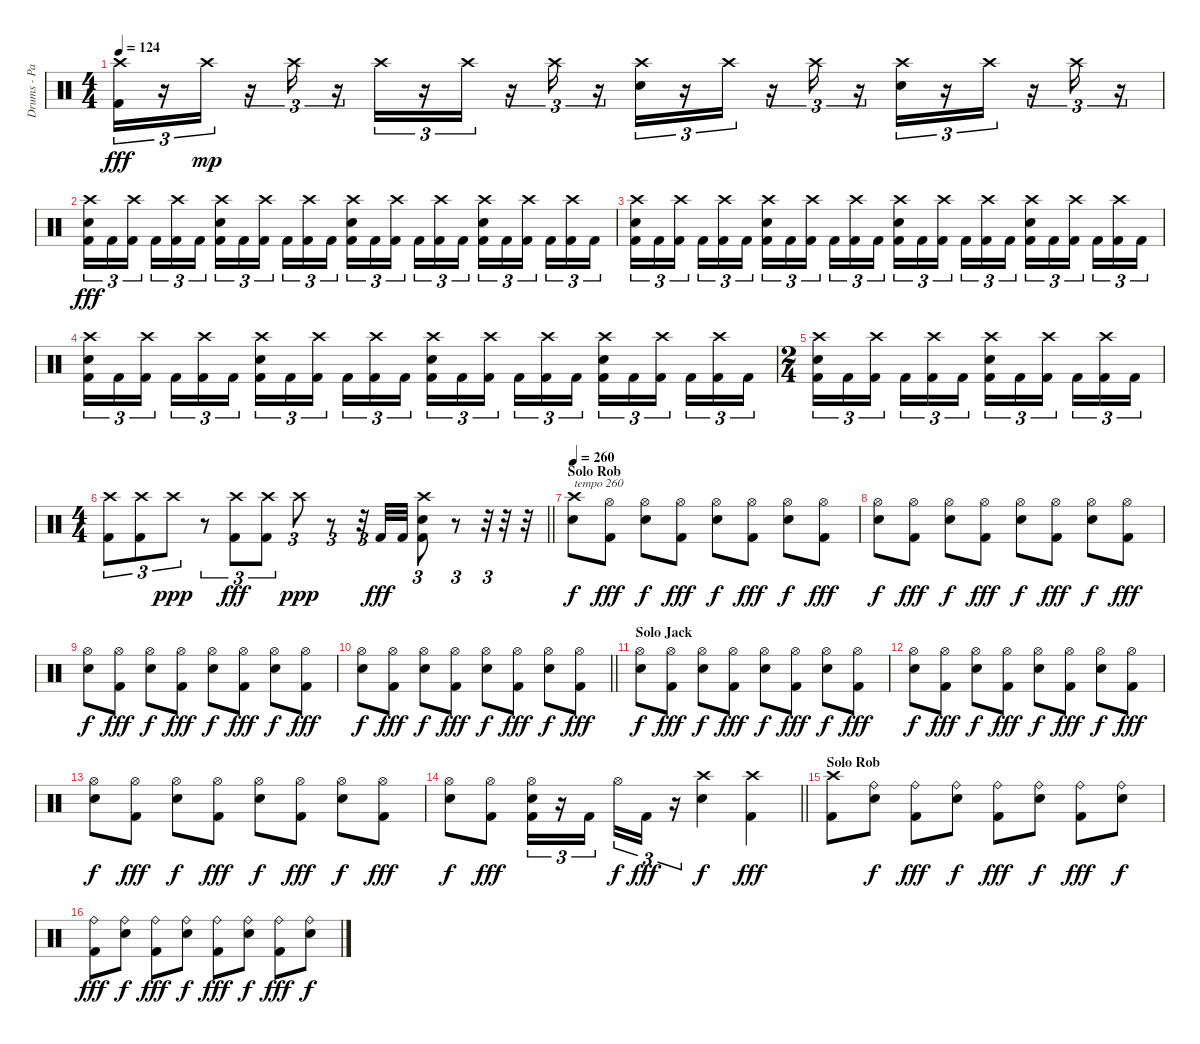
\track ("Drums - Paul Mazurkiewicz" "Drums - Pa") {instrument percussion}
\staff {score}
\articulation defaults
\ts (4 4)
\tempo 124
\clef neutral
\ks c
("Crash high (hit)" "Kick (hit) 2").16{tu (3 2) dy fff} r.16{tu (3 2)} "Crash high (hit)".16{tu (3 2) dy mp} r.16{tu (3 2)} "Crash high (hit)".16{tu (3 2)} r.16{tu (3 2)} "Crash high (hit)".16{tu (3 2)} r.16{tu (3 2)} "Crash high (hit)".16{tu (3 2)} r.16{tu (3 2)} "Crash high (hit)".16{tu (3 2)} r.16{tu (3 2)} ("Crash high (hit)" "Snare (hit) 2").16{tu (3 2)} r.16{tu (3 2)} "Crash high (hit)".16{tu (3 2)} r.16{tu (3 2)} "Crash high (hit)".16{tu (3 2)} r.16{tu (3 2)} ("Crash high (hit)" "Snare (hit) 2").16{tu (3 2)} r.16{tu (3 2)} "Crash high (hit)".16{tu (3 2)} r.16{tu (3 2)} "Crash high (hit)".16{tu (3 2)} r.16{tu (3 2)} |
("Crash high (hit)" "Snare (hit) 2" "Kick (hit) 2").16{tu (3 2) dy fff} "Kick (hit) 2".16{tu (3 2)} ("Crash high (hit)" "Kick (hit) 2").16{tu (3 2) beam splitsecondary} "Kick (hit) 2".16{tu (3 2)} ("Crash high (hit)" "Kick (hit) 2").16{tu (3 2)} "Kick (hit) 2".16{tu (3 2)} ("Crash high (hit)" "Snare (hit) 2" "Kick (hit) 2").16{tu (3 2)} "Kick (hit) 2".16{tu (3 2)} ("Crash high (hit)" "Kick (hit) 2").16{tu (3 2) beam splitsecondary} "Kick (hit) 2".16{tu (3 2)} ("Crash high (hit)" "Kick (hit) 2").16{tu (3 2)} "Kick (hit) 2".16{tu (3 2)} ("Crash high (hit)" "Snare (hit) 2" "Kick (hit) 2").16{tu (3 2)} "Kick (hit) 2".16{tu (3 2)} ("Crash high (hit)" "Kick (hit) 2").16{tu (3 2) beam splitsecondary} "Kick (hit) 2".16{tu (3 2)} ("Crash high (hit)" "Kick (hit) 2").16{tu (3 2)} "Kick (hit) 2".16{tu (3 2)} ("Crash high (hit)" "Snare (hit) 2" "Kick (hit) 2").16{tu (3 2)} "Kick (hit) 2".16{tu (3 2)} ("Crash high (hit)" "Kick (hit) 2").16{tu (3 2) beam splitsecondary} "Kick (hit) 2".16{tu (3 2)} ("Crash high (hit)" "Kick (hit) 2").16{tu (3 2)} "Kick (hit) 2".16{tu (3 2)} |
("Crash high (hit)" "Snare (hit) 2" "Kick (hit) 2").16{tu (3 2)} "Kick (hit) 2".16{tu (3 2)} ("Crash high (hit)" "Kick (hit) 2").16{tu (3 2) beam splitsecondary} "Kick (hit) 2".16{tu (3 2)} ("Crash high (hit)" "Kick (hit) 2").16{tu (3 2)} "Kick (hit) 2".16{tu (3 2)} ("Crash high (hit)" "Snare (hit) 2" "Kick (hit) 2").16{tu (3 2)} "Kick (hit) 2".16{tu (3 2)} ("Crash high (hit)" "Kick (hit) 2").16{tu (3 2) beam splitsecondary} "Kick (hit) 2".16{tu (3 2)} ("Crash high (hit)" "Kick (hit) 2").16{tu (3 2)} "Kick (hit) 2".16{tu (3 2)} ("Crash high (hit)" "Snare (hit) 2" "Kick (hit) 2").16{tu (3 2)} "Kick (hit) 2".16{tu (3 2)} ("Crash high (hit)" "Kick (hit) 2").16{tu (3 2) beam splitsecondary} "Kick (hit) 2".16{tu (3 2)} ("Crash high (hit)" "Kick (hit) 2").16{tu (3 2)} "Kick (hit) 2".16{tu (3 2)} ("Crash high (hit)" "Snare (hit) 2" "Kick (hit) 2").16{tu (3 2)} "Kick (hit) 2".16{tu (3 2)} ("Crash high (hit)" "Kick (hit) 2").16{tu (3 2) beam splitsecondary} "Kick (hit) 2".16{tu (3 2)} ("Crash high (hit)" "Kick (hit) 2").16{tu (3 2)} "Kick (hit) 2".16{tu (3 2)} |
("Crash high (hit)" "Snare (hit) 2" "Kick (hit) 2").16{tu (3 2)} "Kick (hit) 2".16{tu (3 2)} ("Crash high (hit)" "Kick (hit) 2").16{tu (3 2) beam splitsecondary} "Kick (hit) 2".16{tu (3 2)} ("Crash high (hit)" "Kick (hit) 2").16{tu (3 2)} "Kick (hit) 2".16{tu (3 2)} ("Crash high (hit)" "Snare (hit) 2" "Kick (hit) 2").16{tu (3 2)} "Kick (hit) 2".16{tu (3 2)} ("Crash high (hit)" "Kick (hit) 2").16{tu (3 2) beam splitsecondary} "Kick (hit) 2".16{tu (3 2)} ("Crash high (hit)" "Kick (hit) 2").16{tu (3 2)} "Kick (hit) 2".16{tu (3 2)} ("Crash high (hit)" "Snare (hit) 2" "Kick (hit) 2").16{tu (3 2)} "Kick (hit) 2".16{tu (3 2)} ("Crash high (hit)" "Kick (hit) 2").16{tu (3 2) beam splitsecondary} "Kick (hit) 2".16{tu (3 2)} ("Crash high (hit)" "Kick (hit) 2").16{tu (3 2)} "Kick (hit) 2".16{tu (3 2)} ("Crash high (hit)" "Snare (hit) 2" "Kick (hit) 2").16{tu (3 2)} "Kick (hit) 2".16{tu (3 2)} ("Crash high (hit)" "Kick (hit) 2").16{tu (3 2) beam splitsecondary} "Kick (hit) 2".16{tu (3 2)} ("Crash high (hit)" "Kick (hit) 2").16{tu (3 2)} "Kick (hit) 2".16{tu (3 2)} |
\ts (2 4)
("Crash high (hit)" "Snare (hit) 2" "Kick (hit) 2").16{tu (3 2)} "Kick (hit) 2".16{tu (3 2)} ("Crash high (hit)" "Kick (hit) 2").16{tu (3 2) beam splitsecondary} "Kick (hit) 2".16{tu (3 2)} ("Crash high (hit)" "Kick (hit) 2").16{tu (3 2)} "Kick (hit) 2".16{tu (3 2)} ("Crash high (hit)" "Snare (hit) 2" "Kick (hit) 2").16{tu (3 2)} "Kick (hit) 2".16{tu (3 2)} ("Crash high (hit)" "Kick (hit) 2").16{tu (3 2) beam splitsecondary} "Kick (hit) 2".16{tu (3 2)} ("Crash high (hit)" "Kick (hit) 2").16{tu (3 2)} "Kick (hit) 2".16{tu (3 2)} |
\ts (4 4)
\barLineRight lightlight
("Crash high (hit)" "Kick (hit) 2").8{tu (3 2)} ("Crash high (hit)" "Kick (hit) 2").8{tu (3 2)} "Crash high (hit)".8{tu (3 2) dy ppp} r.8{tu (3 2)} ("Crash high (hit)" "Kick (hit) 2").8{tu (3 2) dy fff} ("Crash high (hit)" "Kick (hit) 2").8{tu (3 2)} "Crash high (hit)".8{tu (3 2) dy ppp} r.8{tu (3 2)} r.32{tu (3 2)} "Kick (hit) 2".32{dy fff} "Kick (hit) 2".32 ("Crash high (hit)" "Snare (hit) 2" "Kick (hit) 2").8{tu (3 2)} r.8{tu (3 2)} r.32{tu (3 2)} r.32 r.32 |
\section ("" "Solo Rob")
\tempo 260
("Crash high (hit)" "Snare (hit) 2").8{txt "tempo 260" dy f} ("Hi-Hat (open)" "Kick (hit) 2").8{dy fff} ("Hi-Hat (open)" "Snare (hit) 2").8{dy f} ("Hi-Hat (open)" "Kick (hit) 2").8{dy fff} ("Hi-Hat (open)" "Snare (hit) 2").8{dy f} ("Hi-Hat (open)" "Kick (hit) 2").8{dy fff} ("Hi-Hat (open)" "Snare (hit) 2").8{dy f} ("Hi-Hat (open)" "Kick (hit) 2").8{dy fff} |
("Hi-Hat (open)" "Snare (hit) 2").8{dy f} ("Hi-Hat (open)" "Kick (hit) 2").8{dy fff} ("Hi-Hat (open)" "Snare (hit) 2").8{dy f} ("Hi-Hat (open)" "Kick (hit) 2").8{dy fff} ("Hi-Hat (open)" "Snare (hit) 2").8{dy f} ("Hi-Hat (open)" "Kick (hit) 2").8{dy fff} ("Hi-Hat (open)" "Snare (hit) 2").8{dy f} ("Hi-Hat (open)" "Kick (hit) 2").8{dy fff} |
("Hi-Hat (open)" "Snare (hit) 2").8{dy f} ("Hi-Hat (open)" "Kick (hit) 2").8{dy fff} ("Hi-Hat (open)" "Snare (hit) 2").8{dy f} ("Hi-Hat (open)" "Kick (hit) 2").8{dy fff} ("Hi-Hat (open)" "Snare (hit) 2").8{dy f} ("Hi-Hat (open)" "Kick (hit) 2").8{dy fff} ("Hi-Hat (open)" "Snare (hit) 2").8{dy f} ("Hi-Hat (open)" "Kick (hit) 2").8{dy fff} |
\barLineRight lightlight
("Hi-Hat (open)" "Snare (hit) 2").8{dy f} ("Hi-Hat (open)" "Kick (hit) 2").8{dy fff} ("Hi-Hat (open)" "Snare (hit) 2").8{dy f} ("Hi-Hat (open)" "Kick (hit) 2").8{dy fff} ("Hi-Hat (open)" "Snare (hit) 2").8{dy f} ("Hi-Hat (open)" "Kick (hit) 2").8{dy fff} ("Hi-Hat (open)" "Snare (hit) 2").8{dy f} ("Hi-Hat (open)" "Kick (hit) 2").8{dy fff} |
\section ("" "Solo Jack")
("Hi-Hat (open)" "Snare (hit) 2").8{dy f} ("Hi-Hat (open)" "Kick (hit) 2").8{dy fff} ("Hi-Hat (open)" "Snare (hit) 2").8{dy f} ("Hi-Hat (open)" "Kick (hit) 2").8{dy fff} ("Hi-Hat (open)" "Snare (hit) 2").8{dy f} ("Hi-Hat (open)" "Kick (hit) 2").8{dy fff} ("Hi-Hat (open)" "Snare (hit) 2").8{dy f} ("Hi-Hat (open)" "Kick (hit) 2").8{dy fff} |
("Hi-Hat (open)" "Snare (hit) 2").8{dy f} ("Hi-Hat (open)" "Kick (hit) 2").8{dy fff} ("Hi-Hat (open)" "Snare (hit) 2").8{dy f} ("Hi-Hat (open)" "Kick (hit) 2").8{dy fff} ("Hi-Hat (open)" "Snare (hit) 2").8{dy f} ("Hi-Hat (open)" "Kick (hit) 2").8{dy fff} ("Hi-Hat (open)" "Snare (hit) 2").8{dy f} ("Hi-Hat (open)" "Kick (hit) 2").8{dy fff} |
("Hi-Hat (open)" "Snare (hit) 2").8{dy f} ("Hi-Hat (open)" "Kick (hit) 2").8{dy fff} ("Hi-Hat (open)" "Snare (hit) 2").8{dy f} ("Hi-Hat (open)" "Kick (hit) 2").8{dy fff} ("Hi-Hat (open)" "Snare (hit) 2").8{dy f} ("Hi-Hat (open)" "Kick (hit) 2").8{dy fff} ("Hi-Hat (open)" "Snare (hit) 2").8{dy f} ("Hi-Hat (open)" "Kick (hit) 2").8{dy fff} |
\barLineRight lightlight
("Hi-Hat (open)" "Snare (hit) 2").8{dy f} ("Hi-Hat (open)" "Kick (hit) 2").8{dy fff} ("Hi-Hat (open)" "Snare (hit) 2" "Kick (hit) 2").16{tu (3 2)} r.16{tu (3 2)} "Kick (hit) 2".16{tu (3 2) beam splitsecondary} "Hi-Hat (open)".16{tu (3 2) dy f} "Kick (hit) 2".16{tu (3 2) dy fff} r.16{tu (3 2)} ("Crash high (hit)" "Snare (hit) 2").4{dy f} ("Crash high (hit)" "Kick (hit) 2").4{dy fff} |
\section ("" "Solo Rob")
("Crash high (hit)" "Kick (hit) 2").8 ("Ride (bell)" "Snare (hit) 2").8{dy f} ("Ride (bell)" "Kick (hit) 2").8{dy fff} ("Ride (bell)" "Snare (hit) 2").8{dy f} ("Ride (bell)" "Kick (hit) 2").8{dy fff} ("Ride (bell)" "Snare (hit) 2").8{dy f} ("Ride (bell)" "Kick (hit) 2").8{dy fff} ("Ride (bell)" "Snare (hit) 2").8{dy f} |
("Ride (bell)" "Kick (hit) 2").8{dy fff} ("Ride (bell)" "Snare (hit) 2").8{dy f} ("Ride (bell)" "Kick (hit) 2").8{dy fff} ("Ride (bell)" "Snare (hit) 2").8{dy f} ("Ride (bell)" "Kick (hit) 2").8{dy fff} ("Ride (bell)" "Snare (hit) 2").8{dy f} ("Ride (bell)" "Kick (hit) 2").8{dy fff} ("Ride (bell)" "Snare (hit) 2").8{dy f}
